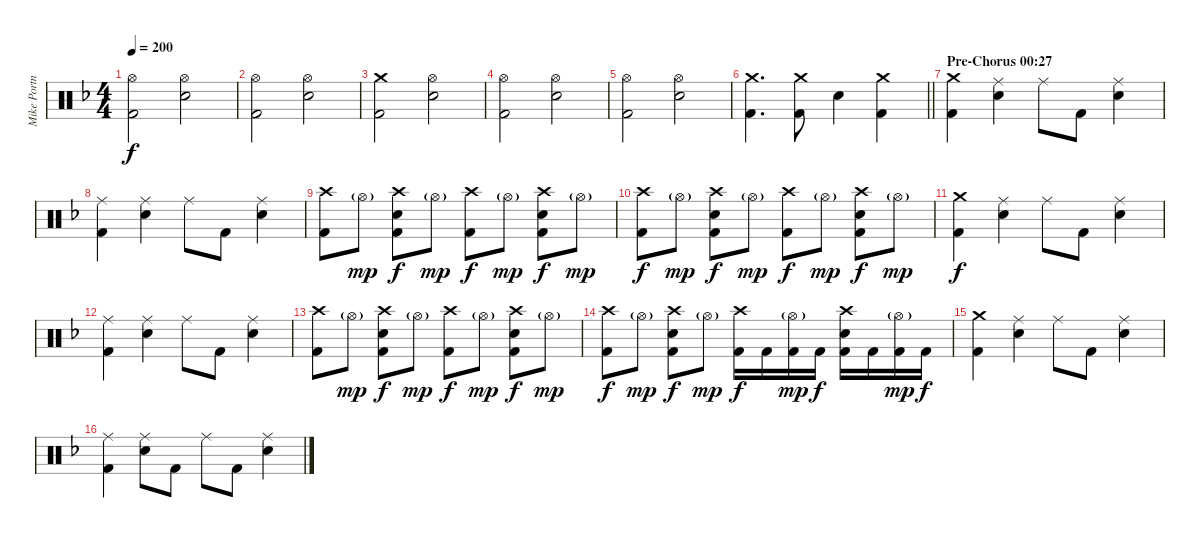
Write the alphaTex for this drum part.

\track ("Mike Portnoy (Drums)" "Mike Portn") {instrument percussion}
\staff {score}
\articulation defaults
\ts (4 4)
\tempo 200
\clef neutral
\ks f
("Hi-Hat (open)" "Kick (hit) 2").2{dy f} ("Hi-Hat (open)" "Electric Snare (hit)").2 |
("Hi-Hat (open)" "Kick (hit) 2").2 ("Hi-Hat (open)" "Electric Snare (hit)").2 |
("Crash medium (hit)" "Kick (hit) 2").2 ("Hi-Hat (open)" "Electric Snare (hit)").2 |
("Hi-Hat (open)" "Kick (hit) 2").2 ("Hi-Hat (open)" "Electric Snare (hit)").2 |
("Hi-Hat (open)" "Kick (hit) 2").2 ("Hi-Hat (open)" "Electric Snare (hit)").2 |
\barLineRight lightlight
("Crash medium (hit)" "Kick (hit) 2").4{d} ("Crash medium (hit)" "Kick (hit) 2").8 "Electric Snare (hit)".4 ("Crash medium (hit)" "Kick (hit) 2").4 |
\section ("" "Pre-Chorus 00:27")
("Crash medium (hit)" "Kick (hit) 2").4 ("Ride (middle)" "Electric Snare (hit)").4 "Ride (middle)".8 "Kick (hit) 2".8 ("Ride (middle)" "Electric Snare (hit)").4 |
("Ride (middle)" "Kick (hit) 2").4 ("Ride (middle)" "Electric Snare (hit)").4 "Ride (middle)".8 "Kick (hit) 2".8 ("Ride (middle)" "Electric Snare (hit)").4 |
("Crash high (hit)" "Kick (hit) 2").8 "Hi-Hat (open)"{g}.8{dy mp} ("Crash high (hit)" "Electric Snare (hit)" "Kick (hit) 2").8{dy f} "Hi-Hat (open)"{g}.8{dy mp} ("Crash high (hit)" "Kick (hit) 2").8{dy f} "Hi-Hat (open)"{g}.8{dy mp} ("Crash high (hit)" "Electric Snare (hit)" "Kick (hit) 2").8{dy f} "Hi-Hat (open)"{g}.8{dy mp} |
("Crash high (hit)" "Kick (hit) 2").8{dy f} "Hi-Hat (open)"{g}.8{dy mp} ("Crash high (hit)" "Electric Snare (hit)" "Kick (hit) 2").8{dy f} "Hi-Hat (open)"{g}.8{dy mp} ("Crash high (hit)" "Kick (hit) 2").8{dy f} "Hi-Hat (open)"{g}.8{dy mp} ("Crash high (hit)" "Electric Snare (hit)" "Kick (hit) 2").8{dy f} "Hi-Hat (open)"{g}.8{dy mp} |
("Crash medium (hit)" "Kick (hit) 2").4{dy f} ("Ride (middle)" "Electric Snare (hit)").4 "Ride (middle)".8 "Kick (hit) 2".8 ("Ride (middle)" "Electric Snare (hit)").4 |
("Ride (middle)" "Kick (hit) 2").4 ("Ride (middle)" "Electric Snare (hit)").4 "Ride (middle)".8 "Kick (hit) 2".8 ("Ride (middle)" "Electric Snare (hit)").4 |
("Crash high (hit)" "Kick (hit) 2").8 "Hi-Hat (open)"{g}.8{dy mp} ("Crash high (hit)" "Electric Snare (hit)" "Kick (hit) 2").8{dy f} "Hi-Hat (open)"{g}.8{dy mp} ("Crash high (hit)" "Kick (hit) 2").8{dy f} "Hi-Hat (open)"{g}.8{dy mp} ("Crash high (hit)" "Electric Snare (hit)" "Kick (hit) 2").8{dy f} "Hi-Hat (open)"{g}.8{dy mp} |
("Crash high (hit)" "Kick (hit) 2").8{dy f} "Hi-Hat (open)"{g}.8{dy mp} ("Crash high (hit)" "Electric Snare (hit)" "Kick (hit) 2").8{dy f} "Hi-Hat (open)"{g}.8{dy mp} ("Crash high (hit)" "Kick (hit) 2").16{dy f} "Kick (hit) 2".16 ("Hi-Hat (open)"{g} "Kick (hit) 2").16{dy mp} "Kick (hit) 2".16{dy f} ("Crash high (hit)" "Electric Snare (hit)" "Kick (hit) 2").16 "Kick (hit) 2".16 ("Hi-Hat (open)"{g} "Kick (hit) 2").16{dy mp} "Kick (hit) 2".16{dy f} |
("Crash medium (hit)" "Kick (hit) 2").4 ("Ride (middle)" "Electric Snare (hit)").4 "Ride (middle)".8 "Kick (hit) 2".8 ("Ride (middle)" "Electric Snare (hit)").4 |
("Ride (middle)" "Kick (hit) 2").4 ("Ride (middle)" "Electric Snare (hit)").8 "Kick (hit) 2".8 "Ride (middle)".8 "Kick (hit) 2".8 ("Ride (middle)" "Electric Snare (hit)").4
